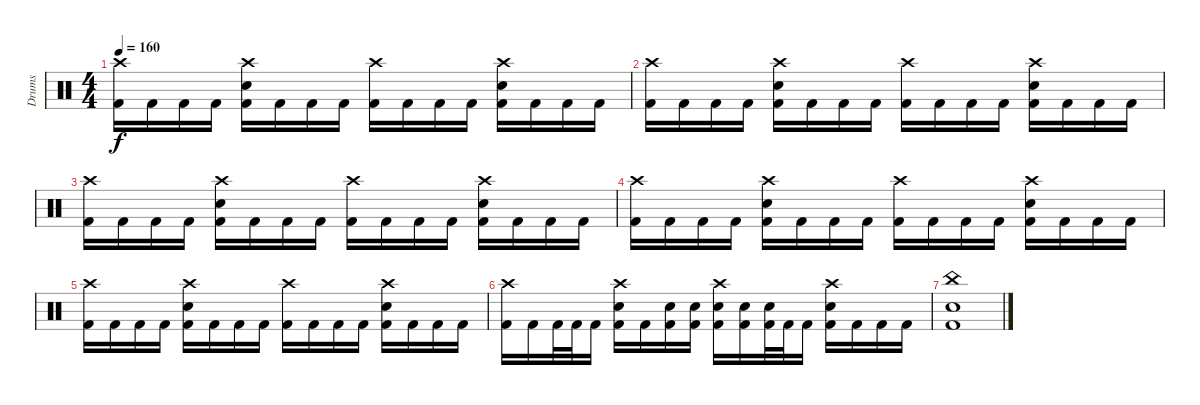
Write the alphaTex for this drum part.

\track ("Drums" "Drums") {instrument percussion}
\staff {score}
\articulation defaults
\ts (4 4)
\tempo 160
\clef neutral
\ks c
("Crash high (hit)" "Kick (hit) 2").16{dy f} "Kick (hit) 2".16 "Kick (hit) 2".16 "Kick (hit) 2".16 ("Crash high (hit)" "Electric Snare (hit)" "Kick (hit) 2").16 "Kick (hit) 2".16 "Kick (hit) 2".16 "Kick (hit) 2".16 ("Crash high (hit)" "Kick (hit) 2").16 "Kick (hit) 2".16 "Kick (hit) 2".16 "Kick (hit) 2".16 ("Crash high (hit)" "Electric Snare (hit)" "Kick (hit) 2").16 "Kick (hit) 2".16 "Kick (hit) 2".16 "Kick (hit) 2".16 |
("Crash high (hit)" "Kick (hit) 2").16 "Kick (hit) 2".16 "Kick (hit) 2".16 "Kick (hit) 2".16 ("Crash high (hit)" "Electric Snare (hit)" "Kick (hit) 2").16 "Kick (hit) 2".16 "Kick (hit) 2".16 "Kick (hit) 2".16 ("Crash high (hit)" "Kick (hit) 2").16 "Kick (hit) 2".16 "Kick (hit) 2".16 "Kick (hit) 2".16 ("Crash high (hit)" "Electric Snare (hit)" "Kick (hit) 2").16 "Kick (hit) 2".16 "Kick (hit) 2".16 "Kick (hit) 2".16 |
("Crash high (hit)" "Kick (hit) 2").16 "Kick (hit) 2".16 "Kick (hit) 2".16 "Kick (hit) 2".16 ("Crash high (hit)" "Electric Snare (hit)" "Kick (hit) 2").16 "Kick (hit) 2".16 "Kick (hit) 2".16 "Kick (hit) 2".16 ("Crash high (hit)" "Kick (hit) 2").16 "Kick (hit) 2".16 "Kick (hit) 2".16 "Kick (hit) 2".16 ("Crash high (hit)" "Electric Snare (hit)" "Kick (hit) 2").16 "Kick (hit) 2".16 "Kick (hit) 2".16 "Kick (hit) 2".16 |
("Crash high (hit)" "Kick (hit) 2").16 "Kick (hit) 2".16 "Kick (hit) 2".16 "Kick (hit) 2".16 ("Crash high (hit)" "Electric Snare (hit)" "Kick (hit) 2").16 "Kick (hit) 2".16 "Kick (hit) 2".16 "Kick (hit) 2".16 ("Crash high (hit)" "Kick (hit) 2").16 "Kick (hit) 2".16 "Kick (hit) 2".16 "Kick (hit) 2".16 ("Crash high (hit)" "Electric Snare (hit)" "Kick (hit) 2").16 "Kick (hit) 2".16 "Kick (hit) 2".16 "Kick (hit) 2".16 |
("Crash high (hit)" "Kick (hit) 2").16 "Kick (hit) 2".16 "Kick (hit) 2".16 "Kick (hit) 2".16 ("Crash high (hit)" "Electric Snare (hit)" "Kick (hit) 2").16 "Kick (hit) 2".16 "Kick (hit) 2".16 "Kick (hit) 2".16 ("Crash high (hit)" "Kick (hit) 2").16 "Kick (hit) 2".16 "Kick (hit) 2".16 "Kick (hit) 2".16 ("Crash high (hit)" "Electric Snare (hit)" "Kick (hit) 2").16 "Kick (hit) 2".16 "Kick (hit) 2".16 "Kick (hit) 2".16 |
("Crash high (hit)" "Kick (hit) 2").16 "Kick (hit) 2".16 "Kick (hit) 2".32 "Kick (hit) 2".32 "Kick (hit) 2".16 ("Crash high (hit)" "Electric Snare (hit)" "Kick (hit) 2").16 "Kick (hit) 2".16 ("Electric Snare (hit)" "Kick (hit) 2").16 ("Electric Snare (hit)" "Kick (hit) 2").16 ("Crash high (hit)" "Electric Snare (hit)" "Kick (hit) 2").16 ("Electric Snare (hit)" "Kick (hit) 2").16 ("Electric Snare (hit)" "Kick (hit) 2").32 "Kick (hit) 2".32 "Kick (hit) 2".16 ("Crash high (hit)" "Electric Snare (hit)" "Kick (hit) 2").16 "Kick (hit) 2".16 "Kick (hit) 2".16 "Kick (hit) 2".16 |
("China (hit)" "Electric Snare (hit)" "Kick (hit) 2").1
